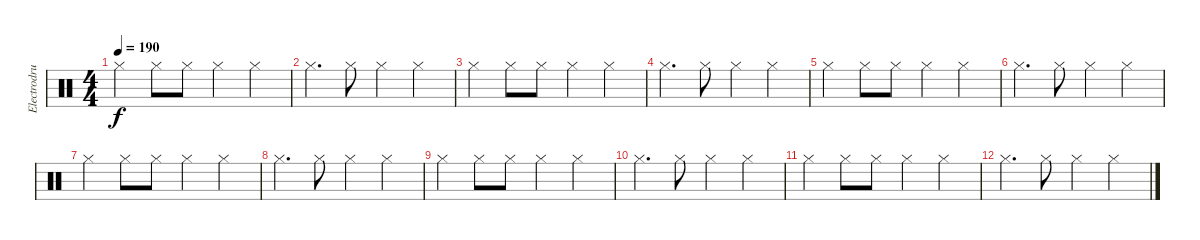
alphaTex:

\track ("Electrodrums1" "Electrodru") {instrument percussion}
\staff {score}
\articulation defaults
\ts (4 4)
\tempo 190
\clef neutral
\ks c "Hi-Hat (closed)".4{dy f} "Hi-Hat (closed)".8 "Hi-Hat (closed)".8 "Hi-Hat (closed)".4 "Hi-Hat (closed)".4
|
"Hi-Hat (closed)".4{d} "Hi-Hat (closed)".8 "Hi-Hat (closed)".4 "Hi-Hat (closed)".4 |
"Hi-Hat (closed)".4 "Hi-Hat (closed)".8 "Hi-Hat (closed)".8 "Hi-Hat (closed)".4 "Hi-Hat (closed)".4 |
"Hi-Hat (closed)".4{d} "Hi-Hat (closed)".8 "Hi-Hat (closed)".4 "Hi-Hat (closed)".4 |
"Hi-Hat (closed)".4 "Hi-Hat (closed)".8 "Hi-Hat (closed)".8 "Hi-Hat (closed)".4 "Hi-Hat (closed)".4 |
"Hi-Hat (closed)".4{d} "Hi-Hat (closed)".8 "Hi-Hat (closed)".4 "Hi-Hat (closed)".4 |
"Hi-Hat (closed)".4 "Hi-Hat (closed)".8 "Hi-Hat (closed)".8 "Hi-Hat (closed)".4 "Hi-Hat (closed)".4 |
"Hi-Hat (closed)".4{d} "Hi-Hat (closed)".8 "Hi-Hat (closed)".4 "Hi-Hat (closed)".4 |
"Hi-Hat (closed)".4 "Hi-Hat (closed)".8 "Hi-Hat (closed)".8 "Hi-Hat (closed)".4 "Hi-Hat (closed)".4 |
"Hi-Hat (closed)".4{d} "Hi-Hat (closed)".8 "Hi-Hat (closed)".4 "Hi-Hat (closed)".4 |
"Hi-Hat (closed)".4 "Hi-Hat (closed)".8 "Hi-Hat (closed)".8 "Hi-Hat (closed)".4 "Hi-Hat (closed)".4 |
"Hi-Hat (closed)".4{d} "Hi-Hat (closed)".8 "Hi-Hat (closed)".4 "Hi-Hat (closed)".4
